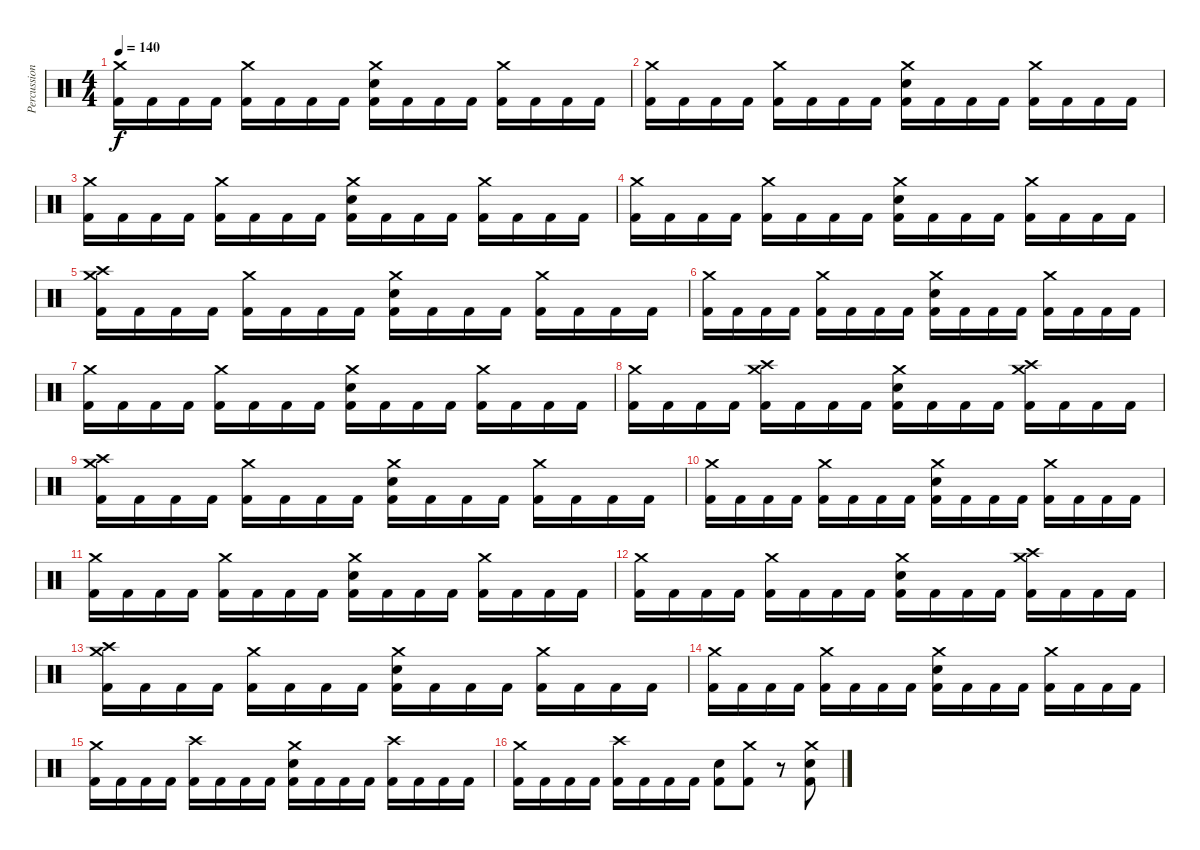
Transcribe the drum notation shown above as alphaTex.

\track ("Percussion" "Percussion") {instrument percussion}
\staff {score}
\articulation defaults
\ts (4 4)
\tempo 140
\clef neutral
\ks c
("Crash medium (hit)" "Kick (hit) 2").16{dy f} "Kick (hit) 2".16 "Kick (hit) 2".16 "Kick (hit) 2".16 ("Crash medium (hit)" "Kick (hit) 2").16 "Kick (hit) 2".16 "Kick (hit) 2".16 "Kick (hit) 2".16 ("Crash medium (hit)" "Electric Snare (hit)" "Kick (hit) 2").16 "Kick (hit) 2".16 "Kick (hit) 2".16 "Kick (hit) 2".16 ("Crash medium (hit)" "Kick (hit) 2").16 "Kick (hit) 2".16 "Kick (hit) 2".16 "Kick (hit) 2".16 |
("Crash medium (hit)" "Kick (hit) 2").16 "Kick (hit) 2".16 "Kick (hit) 2".16 "Kick (hit) 2".16 ("Crash medium (hit)" "Kick (hit) 2").16 "Kick (hit) 2".16 "Kick (hit) 2".16 "Kick (hit) 2".16 ("Crash medium (hit)" "Electric Snare (hit)" "Kick (hit) 2").16 "Kick (hit) 2".16 "Kick (hit) 2".16 "Kick (hit) 2".16 ("Crash medium (hit)" "Kick (hit) 2").16 "Kick (hit) 2".16 "Kick (hit) 2".16 "Kick (hit) 2".16 |
("Crash medium (hit)" "Kick (hit) 2").16 "Kick (hit) 2".16 "Kick (hit) 2".16 "Kick (hit) 2".16 ("Crash medium (hit)" "Kick (hit) 2").16 "Kick (hit) 2".16 "Kick (hit) 2".16 "Kick (hit) 2".16 ("Crash medium (hit)" "Electric Snare (hit)" "Kick (hit) 2").16 "Kick (hit) 2".16 "Kick (hit) 2".16 "Kick (hit) 2".16 ("Crash medium (hit)" "Kick (hit) 2").16 "Kick (hit) 2".16 "Kick (hit) 2".16 "Kick (hit) 2".16 |
("Crash medium (hit)" "Kick (hit) 2").16 "Kick (hit) 2".16 "Kick (hit) 2".16 "Kick (hit) 2".16 ("Crash medium (hit)" "Kick (hit) 2").16 "Kick (hit) 2".16 "Kick (hit) 2".16 "Kick (hit) 2".16 ("Crash medium (hit)" "Electric Snare (hit)" "Kick (hit) 2").16 "Kick (hit) 2".16 "Kick (hit) 2".16 "Kick (hit) 2".16 ("Crash medium (hit)" "Kick (hit) 2").16 "Kick (hit) 2".16 "Kick (hit) 2".16 "Kick (hit) 2".16 |
("Crash medium (hit)" "Crash high (hit)" "Kick (hit) 2").16 "Kick (hit) 2".16 "Kick (hit) 2".16 "Kick (hit) 2".16 ("Crash medium (hit)" "Kick (hit) 2").16 "Kick (hit) 2".16 "Kick (hit) 2".16 "Kick (hit) 2".16 ("Crash medium (hit)" "Electric Snare (hit)" "Kick (hit) 2").16 "Kick (hit) 2".16 "Kick (hit) 2".16 "Kick (hit) 2".16 ("Crash medium (hit)" "Kick (hit) 2").16 "Kick (hit) 2".16 "Kick (hit) 2".16 "Kick (hit) 2".16 |
("Crash medium (hit)" "Kick (hit) 2").16 "Kick (hit) 2".16 "Kick (hit) 2".16 "Kick (hit) 2".16 ("Crash medium (hit)" "Kick (hit) 2").16 "Kick (hit) 2".16 "Kick (hit) 2".16 "Kick (hit) 2".16 ("Crash medium (hit)" "Electric Snare (hit)" "Kick (hit) 2").16 "Kick (hit) 2".16 "Kick (hit) 2".16 "Kick (hit) 2".16 ("Crash medium (hit)" "Kick (hit) 2").16 "Kick (hit) 2".16 "Kick (hit) 2".16 "Kick (hit) 2".16 |
("Crash medium (hit)" "Kick (hit) 2").16 "Kick (hit) 2".16 "Kick (hit) 2".16 "Kick (hit) 2".16 ("Crash medium (hit)" "Kick (hit) 2").16 "Kick (hit) 2".16 "Kick (hit) 2".16 "Kick (hit) 2".16 ("Crash medium (hit)" "Electric Snare (hit)" "Kick (hit) 2").16 "Kick (hit) 2".16 "Kick (hit) 2".16 "Kick (hit) 2".16 ("Crash medium (hit)" "Kick (hit) 2").16 "Kick (hit) 2".16 "Kick (hit) 2".16 "Kick (hit) 2".16 |
("Crash medium (hit)" "Kick (hit) 2").16 "Kick (hit) 2".16 "Kick (hit) 2".16 "Kick (hit) 2".16 ("Crash medium (hit)" "Crash high (hit)" "Kick (hit) 2").16 "Kick (hit) 2".16 "Kick (hit) 2".16 "Kick (hit) 2".16 ("Crash medium (hit)" "Electric Snare (hit)" "Kick (hit) 2").16 "Kick (hit) 2".16 "Kick (hit) 2".16 "Kick (hit) 2".16 ("Crash medium (hit)" "Crash high (hit)" "Kick (hit) 2").16 "Kick (hit) 2".16 "Kick (hit) 2".16 "Kick (hit) 2".16 |
("Crash medium (hit)" "Crash high (hit)" "Kick (hit) 2").16 "Kick (hit) 2".16 "Kick (hit) 2".16 "Kick (hit) 2".16 ("Crash medium (hit)" "Kick (hit) 2").16 "Kick (hit) 2".16 "Kick (hit) 2".16 "Kick (hit) 2".16 ("Crash medium (hit)" "Electric Snare (hit)" "Kick (hit) 2").16 "Kick (hit) 2".16 "Kick (hit) 2".16 "Kick (hit) 2".16 ("Crash medium (hit)" "Kick (hit) 2").16 "Kick (hit) 2".16 "Kick (hit) 2".16 "Kick (hit) 2".16 |
("Crash medium (hit)" "Kick (hit) 2").16 "Kick (hit) 2".16 "Kick (hit) 2".16 "Kick (hit) 2".16 ("Crash medium (hit)" "Kick (hit) 2").16 "Kick (hit) 2".16 "Kick (hit) 2".16 "Kick (hit) 2".16 ("Crash medium (hit)" "Electric Snare (hit)" "Kick (hit) 2").16 "Kick (hit) 2".16 "Kick (hit) 2".16 "Kick (hit) 2".16 ("Crash medium (hit)" "Kick (hit) 2").16 "Kick (hit) 2".16 "Kick (hit) 2".16 "Kick (hit) 2".16 |
("Crash medium (hit)" "Kick (hit) 2").16 "Kick (hit) 2".16 "Kick (hit) 2".16 "Kick (hit) 2".16 ("Crash medium (hit)" "Kick (hit) 2").16 "Kick (hit) 2".16 "Kick (hit) 2".16 "Kick (hit) 2".16 ("Crash medium (hit)" "Electric Snare (hit)" "Kick (hit) 2").16 "Kick (hit) 2".16 "Kick (hit) 2".16 "Kick (hit) 2".16 ("Crash medium (hit)" "Kick (hit) 2").16 "Kick (hit) 2".16 "Kick (hit) 2".16 "Kick (hit) 2".16 |
("Crash medium (hit)" "Kick (hit) 2").16 "Kick (hit) 2".16 "Kick (hit) 2".16 "Kick (hit) 2".16 ("Crash medium (hit)" "Kick (hit) 2").16 "Kick (hit) 2".16 "Kick (hit) 2".16 "Kick (hit) 2".16 ("Crash medium (hit)" "Electric Snare (hit)" "Kick (hit) 2").16 "Kick (hit) 2".16 "Kick (hit) 2".16 "Kick (hit) 2".16 ("Crash medium (hit)" "Crash high (hit)" "Kick (hit) 2").16 "Kick (hit) 2".16 "Kick (hit) 2".16 "Kick (hit) 2".16 |
("Crash medium (hit)" "Crash high (hit)" "Kick (hit) 2").16 "Kick (hit) 2".16 "Kick (hit) 2".16 "Kick (hit) 2".16 ("Crash medium (hit)" "Kick (hit) 2").16 "Kick (hit) 2".16 "Kick (hit) 2".16 "Kick (hit) 2".16 ("Crash medium (hit)" "Electric Snare (hit)" "Kick (hit) 2").16 "Kick (hit) 2".16 "Kick (hit) 2".16 "Kick (hit) 2".16 ("Crash medium (hit)" "Kick (hit) 2").16 "Kick (hit) 2".16 "Kick (hit) 2".16 "Kick (hit) 2".16 |
("Crash medium (hit)" "Kick (hit) 2").16 "Kick (hit) 2".16 "Kick (hit) 2".16 "Kick (hit) 2".16 ("Crash medium (hit)" "Kick (hit) 2").16 "Kick (hit) 2".16 "Kick (hit) 2".16 "Kick (hit) 2".16 ("Crash medium (hit)" "Electric Snare (hit)" "Kick (hit) 2").16 "Kick (hit) 2".16 "Kick (hit) 2".16 "Kick (hit) 2".16 ("Crash medium (hit)" "Kick (hit) 2").16 "Kick (hit) 2".16 "Kick (hit) 2".16 "Kick (hit) 2".16 |
("Crash medium (hit)" "Kick (hit) 2").16 "Kick (hit) 2".16 "Kick (hit) 2".16 "Kick (hit) 2".16 ("Crash high (hit)" "Kick (hit) 2").16 "Kick (hit) 2".16 "Kick (hit) 2".16 "Kick (hit) 2".16 ("Crash medium (hit)" "Electric Snare (hit)" "Kick (hit) 2").16 "Kick (hit) 2".16 "Kick (hit) 2".16 "Kick (hit) 2".16 ("Crash high (hit)" "Kick (hit) 2").16 "Kick (hit) 2".16 "Kick (hit) 2".16 "Kick (hit) 2".16 |
("Crash medium (hit)" "Kick (hit) 2").16 "Kick (hit) 2".16 "Kick (hit) 2".16 "Kick (hit) 2".16 ("Crash high (hit)" "Kick (hit) 2").16 "Kick (hit) 2".16 "Kick (hit) 2".16 "Kick (hit) 2".16 ("Electric Snare (hit)" "Kick (hit) 2").8 ("Crash medium (hit)" "Kick (hit) 2").8 r.8 ("Crash medium (hit)" "Electric Snare (hit)" "Kick (hit) 2").8
